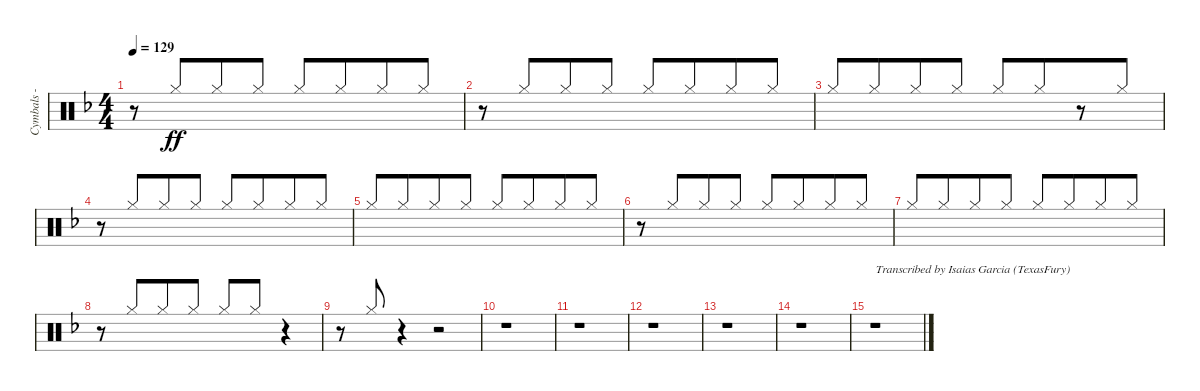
\track ("Cymbals - hi-hat" "Cymbals - ") {instrument percussion}
\staff {score}
\articulation defaults
\ts (4 4)
\tempo 129
\clef neutral
\ks dminor
r.8{dy ff} "Hi-Hat (closed)".8{beam Up beam merge} "Hi-Hat (closed)".8{beam Up} "Hi-Hat (closed)".8{beam Up} "Hi-Hat (closed)".8{beam Up} "Hi-Hat (closed)".8{beam Up beam merge} "Hi-Hat (closed)".8{beam Up} "Hi-Hat (closed)".8{beam Up} |
r.8 "Hi-Hat (closed)".8{beam Up beam merge} "Hi-Hat (closed)".8{beam Up} "Hi-Hat (closed)".8{beam Up} "Hi-Hat (closed)".8{beam Up} "Hi-Hat (closed)".8{beam Up beam merge} "Hi-Hat (closed)".8{beam Up} "Hi-Hat (closed)".8{beam Up} |
"Hi-Hat (closed)".8{beam Up} "Hi-Hat (closed)".8{beam Up beam merge} "Hi-Hat (closed)".8{beam Up} "Hi-Hat (closed)".8{beam Up} "Hi-Hat (closed)".8{beam Up} "Hi-Hat (closed)".8{beam Up beam merge} r.8 "Hi-Hat (closed)".8{beam Up} |
r.8 "Hi-Hat (closed)".8{beam Up beam merge} "Hi-Hat (closed)".8{beam Up} "Hi-Hat (closed)".8{beam Up} "Hi-Hat (closed)".8{beam Up} "Hi-Hat (closed)".8{beam Up beam merge} "Hi-Hat (closed)".8{beam Up} "Hi-Hat (closed)".8{beam Up} |
"Hi-Hat (closed)".8{beam Up} "Hi-Hat (closed)".8{beam Up beam merge} "Hi-Hat (closed)".8{beam Up} "Hi-Hat (closed)".8{beam Up} "Hi-Hat (closed)".8{beam Up} "Hi-Hat (closed)".8{beam Up beam merge} "Hi-Hat (closed)".8{beam Up} "Hi-Hat (closed)".8{beam Up} |
r.8 "Hi-Hat (closed)".8{beam Up beam merge} "Hi-Hat (closed)".8{beam Up} "Hi-Hat (closed)".8{beam Up} "Hi-Hat (closed)".8{beam Up} "Hi-Hat (closed)".8{beam Up beam merge} "Hi-Hat (closed)".8{beam Up} "Hi-Hat (closed)".8{beam Up} |
"Hi-Hat (closed)".8{beam Up} "Hi-Hat (closed)".8{beam Up beam merge} "Hi-Hat (closed)".8{beam Up} "Hi-Hat (closed)".8{beam Up} "Hi-Hat (closed)".8{beam Up} "Hi-Hat (closed)".8{beam Up beam merge} "Hi-Hat (closed)".8{beam Up} "Hi-Hat (closed)".8{beam Up} |
r.8 "Hi-Hat (closed)".8{beam Up beam merge} "Hi-Hat (closed)".8{beam Up} "Hi-Hat (closed)".8{beam Up} "Hi-Hat (closed)".8{beam Up} "Hi-Hat (closed)".8{beam Up} r.4 |
r.8 "Hi-Hat (closed)".8{beam Up} r.4 r.2 |
r.1 |
r.1 |
r.1 |
r.1 |
r.1 |
r.1{txt "Transcribed by Isaias Garcia (TexasFury)"}
